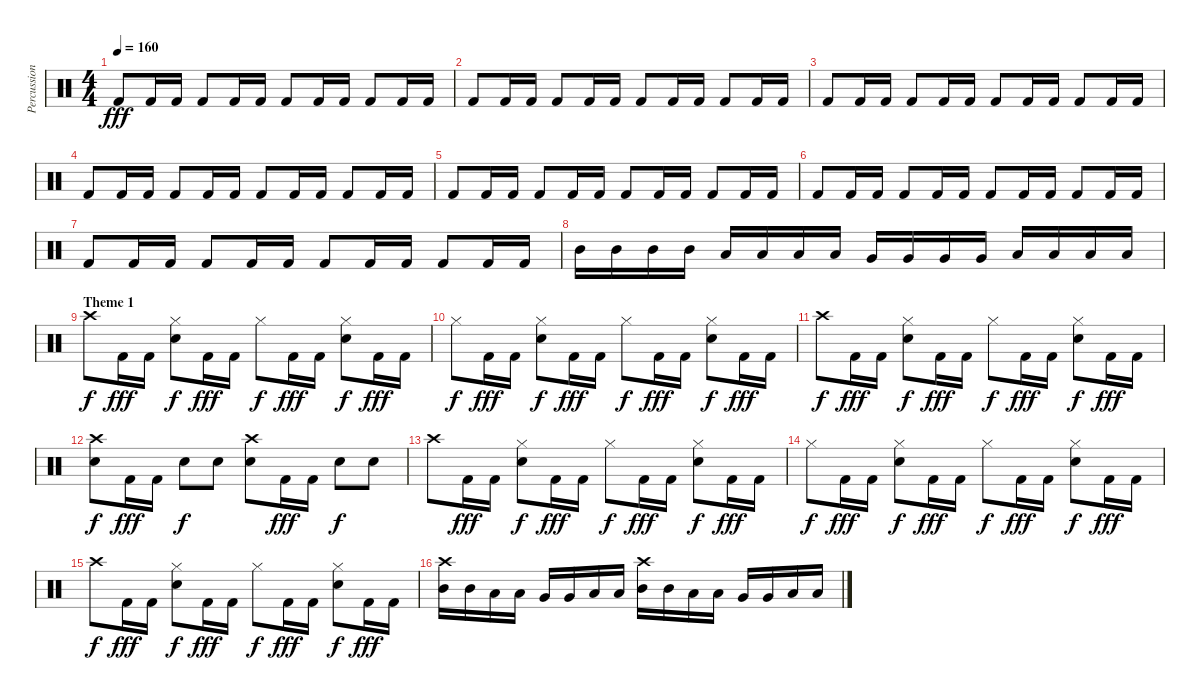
\track ("Percussion" "Percussion") {instrument percussion}
\staff {score}
\articulation defaults
\ts (4 4)
\tempo 160
\clef neutral
\ks c "Kick (hit) 2".8{dy fff} "Kick (hit) 2".16 "Kick (hit) 2".16 "Kick (hit) 2".8 "Kick (hit) 2".16 "Kick (hit) 2".16 "Kick (hit) 2".8 "Kick (hit) 2".16 "Kick (hit) 2".16 "Kick (hit) 2".8 "Kick (hit) 2".16 "Kick (hit) 2".16
|
"Kick (hit) 2".8 "Kick (hit) 2".16 "Kick (hit) 2".16 "Kick (hit) 2".8 "Kick (hit) 2".16 "Kick (hit) 2".16 "Kick (hit) 2".8 "Kick (hit) 2".16 "Kick (hit) 2".16 "Kick (hit) 2".8 "Kick (hit) 2".16 "Kick (hit) 2".16 |
"Kick (hit) 2".8 "Kick (hit) 2".16 "Kick (hit) 2".16 "Kick (hit) 2".8 "Kick (hit) 2".16 "Kick (hit) 2".16 "Kick (hit) 2".8 "Kick (hit) 2".16 "Kick (hit) 2".16 "Kick (hit) 2".8 "Kick (hit) 2".16 "Kick (hit) 2".16 |
"Kick (hit) 2".8 "Kick (hit) 2".16 "Kick (hit) 2".16 "Kick (hit) 2".8 "Kick (hit) 2".16 "Kick (hit) 2".16 "Kick (hit) 2".8 "Kick (hit) 2".16 "Kick (hit) 2".16 "Kick (hit) 2".8 "Kick (hit) 2".16 "Kick (hit) 2".16 |
"Kick (hit) 2".8 "Kick (hit) 2".16 "Kick (hit) 2".16 "Kick (hit) 2".8 "Kick (hit) 2".16 "Kick (hit) 2".16 "Kick (hit) 2".8 "Kick (hit) 2".16 "Kick (hit) 2".16 "Kick (hit) 2".8 "Kick (hit) 2".16 "Kick (hit) 2".16 |
"Kick (hit) 2".8 "Kick (hit) 2".16 "Kick (hit) 2".16 "Kick (hit) 2".8 "Kick (hit) 2".16 "Kick (hit) 2".16 "Kick (hit) 2".8 "Kick (hit) 2".16 "Kick (hit) 2".16 "Kick (hit) 2".8 "Kick (hit) 2".16 "Kick (hit) 2".16 |
"Kick (hit) 2".8 "Kick (hit) 2".16 "Kick (hit) 2".16 "Kick (hit) 2".8 "Kick (hit) 2".16 "Kick (hit) 2".16 "Kick (hit) 2".8 "Kick (hit) 2".16 "Kick (hit) 2".16 "Kick (hit) 2".8 "Kick (hit) 2".16 "Kick (hit) 2".16 |
"Mid Tom (hit)".16 "Mid Tom (hit)".16 "Mid Tom (hit)".16 "Mid Tom (hit)".16 "Low Tom (hit)".16 "Low Tom (hit)".16 "Low Tom (hit)".16 "Low Tom (hit)".16 "Very Low Tom (hit)".16 "Very Low Tom (hit)".16 "Very Low Tom (hit)".16 "Very Low Tom (hit)".16 "Low Floor Tom (hit)".16 "Low Floor Tom (hit)".16 "Low Floor Tom (hit)".16 "Low Floor Tom (hit)".16 |
\section ("" "Theme 1")
"Crash high (hit)".8{dy f} "Kick (hit) 2".16{dy fff} "Kick (hit) 2".16 ("Hi-Hat (closed)" "Electric Snare (hit)").8{dy f} "Kick (hit) 2".16{dy fff} "Kick (hit) 2".16 "Hi-Hat (closed)".8{dy f} "Kick (hit) 2".16{dy fff} "Kick (hit) 2".16 ("Hi-Hat (closed)" "Electric Snare (hit)").8{dy f} "Kick (hit) 2".16{dy fff} "Kick (hit) 2".16 |
"Hi-Hat (closed)".8{dy f} "Kick (hit) 2".16{dy fff} "Kick (hit) 2".16 ("Hi-Hat (closed)" "Electric Snare (hit)").8{dy f} "Kick (hit) 2".16{dy fff} "Kick (hit) 2".16 "Hi-Hat (closed)".8{dy f} "Kick (hit) 2".16{dy fff} "Kick (hit) 2".16 ("Hi-Hat (closed)" "Electric Snare (hit)").8{dy f} "Kick (hit) 2".16{dy fff} "Kick (hit) 2".16 |
"Crash high (hit)".8{dy f} "Kick (hit) 2".16{dy fff} "Kick (hit) 2".16 ("Hi-Hat (closed)" "Electric Snare (hit)").8{dy f} "Kick (hit) 2".16{dy fff} "Kick (hit) 2".16 "Hi-Hat (closed)".8{dy f} "Kick (hit) 2".16{dy fff} "Kick (hit) 2".16 ("Hi-Hat (closed)" "Electric Snare (hit)").8{dy f} "Kick (hit) 2".16{dy fff} "Kick (hit) 2".16 |
("Crash high (hit)" "Electric Snare (hit)").8{dy f} "Kick (hit) 2".16{dy fff} "Kick (hit) 2".16 "Electric Snare (hit)".8{dy f} "Electric Snare (hit)".8 ("Crash high (hit)" "Electric Snare (hit)").8 "Kick (hit) 2".16{dy fff} "Kick (hit) 2".16 "Electric Snare (hit)".8{dy f} "Electric Snare (hit)".8 |
"Crash high (hit)".8 "Kick (hit) 2".16{dy fff} "Kick (hit) 2".16 ("Hi-Hat (closed)" "Electric Snare (hit)").8{dy f} "Kick (hit) 2".16{dy fff} "Kick (hit) 2".16 "Hi-Hat (closed)".8{dy f} "Kick (hit) 2".16{dy fff} "Kick (hit) 2".16 ("Hi-Hat (closed)" "Electric Snare (hit)").8{dy f} "Kick (hit) 2".16{dy fff} "Kick (hit) 2".16 |
"Hi-Hat (closed)".8{dy f} "Kick (hit) 2".16{dy fff} "Kick (hit) 2".16 ("Hi-Hat (closed)" "Electric Snare (hit)").8{dy f} "Kick (hit) 2".16{dy fff} "Kick (hit) 2".16 "Hi-Hat (closed)".8{dy f} "Kick (hit) 2".16{dy fff} "Kick (hit) 2".16 ("Hi-Hat (closed)" "Electric Snare (hit)").8{dy f} "Kick (hit) 2".16{dy fff} "Kick (hit) 2".16 |
"Crash high (hit)".8{dy f} "Kick (hit) 2".16{dy fff} "Kick (hit) 2".16 ("Hi-Hat (closed)" "Electric Snare (hit)").8{dy f} "Kick (hit) 2".16{dy fff} "Kick (hit) 2".16 "Hi-Hat (closed)".8{dy f} "Kick (hit) 2".16{dy fff} "Kick (hit) 2".16 ("Hi-Hat (closed)" "Electric Snare (hit)").8{dy f} "Kick (hit) 2".16{dy fff} "Kick (hit) 2".16 |
("Crash high (hit)" "Mid Tom (hit)").16 "Mid Tom (hit)".16 "Low Tom (hit)".16 "Low Tom (hit)".16 "Very Low Tom (hit)".16 "Very Low Tom (hit)".16 "Low Floor Tom (hit)".16 "Low Floor Tom (hit)".16 ("Crash high (hit)" "Mid Tom (hit)").16 "Mid Tom (hit)".16 "Low Tom (hit)".16 "Low Tom (hit)".16 "Very Low Tom (hit)".16 "Very Low Tom (hit)".16 "Low Floor Tom (hit)".16 "Low Floor Tom (hit)".16
